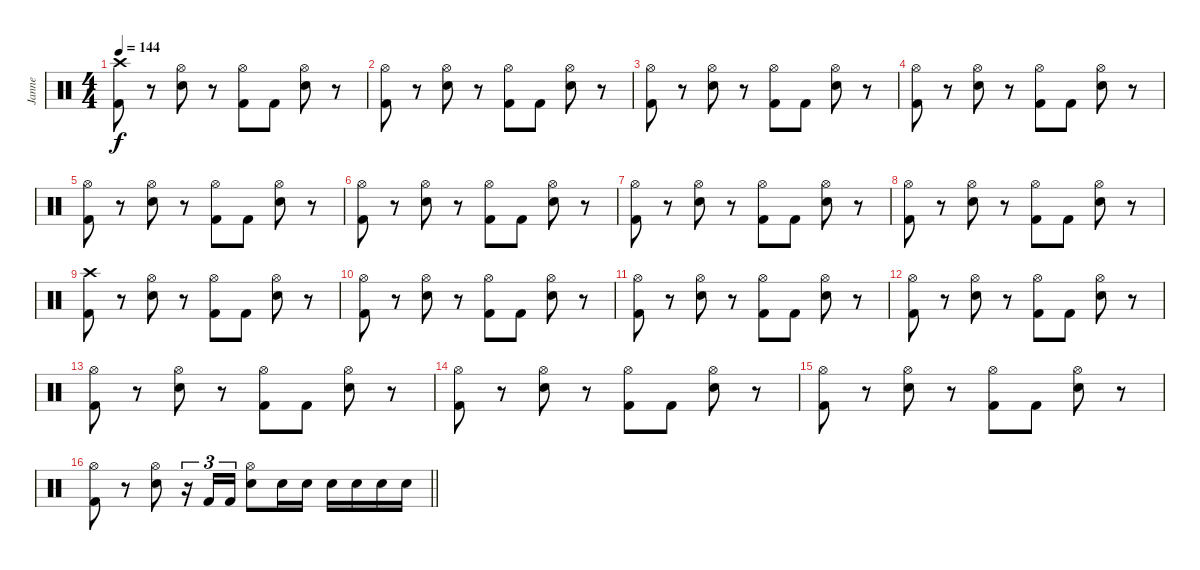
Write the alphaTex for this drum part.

\track ("Janne" "Janne") {instrument percussion}
\staff {score}
\articulation defaults
\ts (4 4)
\tempo 144
\clef neutral
\ks c
("Crash high (hit)" "Kick (hit) 2").8{dy f} r.8 ("Hi-Hat (open)" "Electric Snare (hit)").8 r.8 ("Hi-Hat (open)" "Kick (hit) 2").8 "Kick (hit) 2".8 ("Hi-Hat (open)" "Electric Snare (hit)").8 r.8 |
("Hi-Hat (open)" "Kick (hit) 2").8 r.8 ("Hi-Hat (open)" "Electric Snare (hit)").8 r.8 ("Hi-Hat (open)" "Kick (hit) 2").8 "Kick (hit) 2".8 ("Hi-Hat (open)" "Electric Snare (hit)").8 r.8 |
("Hi-Hat (open)" "Kick (hit) 2").8 r.8 ("Hi-Hat (open)" "Electric Snare (hit)").8 r.8 ("Hi-Hat (open)" "Kick (hit) 2").8 "Kick (hit) 2".8 ("Hi-Hat (open)" "Electric Snare (hit)").8 r.8 |
("Hi-Hat (open)" "Kick (hit) 2").8 r.8 ("Hi-Hat (open)" "Electric Snare (hit)").8 r.8 ("Hi-Hat (open)" "Kick (hit) 2").8 "Kick (hit) 2".8 ("Hi-Hat (open)" "Electric Snare (hit)").8 r.8 |
("Hi-Hat (open)" "Kick (hit) 2").8 r.8 ("Hi-Hat (open)" "Electric Snare (hit)").8 r.8 ("Hi-Hat (open)" "Kick (hit) 2").8 "Kick (hit) 2".8 ("Hi-Hat (open)" "Electric Snare (hit)").8 r.8 |
("Hi-Hat (open)" "Kick (hit) 2").8 r.8 ("Hi-Hat (open)" "Electric Snare (hit)").8 r.8 ("Hi-Hat (open)" "Kick (hit) 2").8 "Kick (hit) 2".8 ("Hi-Hat (open)" "Electric Snare (hit)").8 r.8 |
("Hi-Hat (open)" "Kick (hit) 2").8 r.8 ("Hi-Hat (open)" "Electric Snare (hit)").8 r.8 ("Hi-Hat (open)" "Kick (hit) 2").8 "Kick (hit) 2".8 ("Hi-Hat (open)" "Electric Snare (hit)").8 r.8 |
("Hi-Hat (open)" "Kick (hit) 2").8 r.8 ("Hi-Hat (open)" "Electric Snare (hit)").8 r.8 ("Hi-Hat (open)" "Kick (hit) 2").8 "Kick (hit) 2".8 ("Hi-Hat (open)" "Electric Snare (hit)").8 r.8 |
("Crash high (hit)" "Kick (hit) 2").8 r.8 ("Hi-Hat (open)" "Electric Snare (hit)").8 r.8 ("Hi-Hat (open)" "Kick (hit) 2").8 "Kick (hit) 2".8 ("Hi-Hat (open)" "Electric Snare (hit)").8 r.8 |
("Hi-Hat (open)" "Kick (hit) 2").8 r.8 ("Hi-Hat (open)" "Electric Snare (hit)").8 r.8 ("Hi-Hat (open)" "Kick (hit) 2").8 "Kick (hit) 2".8 ("Hi-Hat (open)" "Electric Snare (hit)").8 r.8 |
("Hi-Hat (open)" "Kick (hit) 2").8 r.8 ("Hi-Hat (open)" "Electric Snare (hit)").8 r.8 ("Hi-Hat (open)" "Kick (hit) 2").8 "Kick (hit) 2".8 ("Hi-Hat (open)" "Electric Snare (hit)").8 r.8 |
("Hi-Hat (open)" "Kick (hit) 2").8 r.8 ("Hi-Hat (open)" "Electric Snare (hit)").8 r.8 ("Hi-Hat (open)" "Kick (hit) 2").8 "Kick (hit) 2".8 ("Hi-Hat (open)" "Electric Snare (hit)").8 r.8 |
("Hi-Hat (open)" "Kick (hit) 2").8 r.8 ("Hi-Hat (open)" "Electric Snare (hit)").8 r.8 ("Hi-Hat (open)" "Kick (hit) 2").8 "Kick (hit) 2".8 ("Hi-Hat (open)" "Electric Snare (hit)").8 r.8 |
("Hi-Hat (open)" "Kick (hit) 2").8 r.8 ("Hi-Hat (open)" "Electric Snare (hit)").8 r.8 ("Hi-Hat (open)" "Kick (hit) 2").8 "Kick (hit) 2".8 ("Hi-Hat (open)" "Electric Snare (hit)").8 r.8 |
("Hi-Hat (open)" "Kick (hit) 2").8 r.8 ("Hi-Hat (open)" "Electric Snare (hit)").8 r.8 ("Hi-Hat (open)" "Kick (hit) 2").8 "Kick (hit) 2".8 ("Hi-Hat (open)" "Electric Snare (hit)").8 r.8 |
\barLineRight lightlight
("Hi-Hat (open)" "Kick (hit) 2").8 r.8 ("Hi-Hat (open)" "Electric Snare (hit)").8 r.16{tu (3 2)} "Kick (hit) 2".16{tu (3 2)} "Kick (hit) 2".16{tu (3 2)} ("Hi-Hat (open)" "Electric Snare (hit)").8 "Electric Snare (hit)".16 "Electric Snare (hit)".16 "Electric Snare (hit)".16 "Electric Snare (hit)".16 "Electric Snare (hit)".16 "Electric Snare (hit)".16
